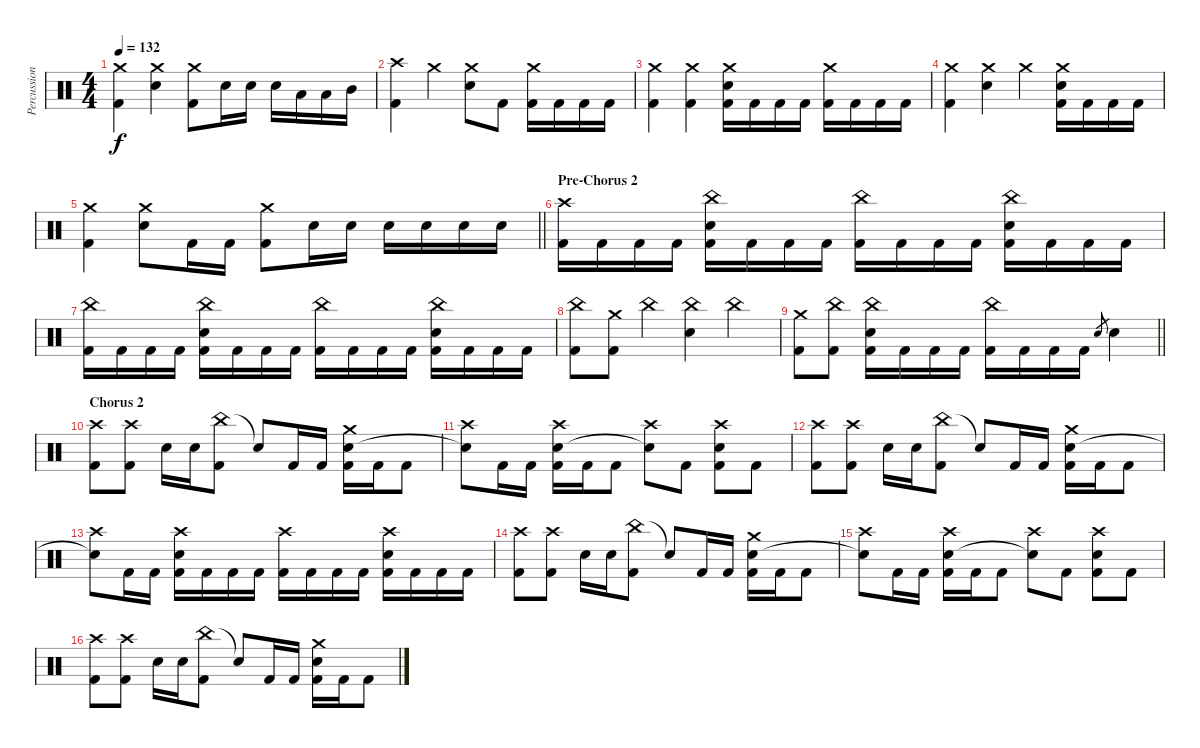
\track ("Percussion" "Percussion") {instrument percussion}
\staff {score}
\articulation defaults
\ts (4 4)
\tempo 132
\clef neutral
\ks c
("Crash medium (hit)" "Kick (hit) 2").4{dy f} ("Crash medium (hit)" "Electric Snare (hit)").4 ("Crash medium (hit)" "Kick (hit) 2").8 "Electric Snare (hit)".16 "Electric Snare (hit)".16 "Electric Snare (hit)".16 "Low Tom (hit)".16 "Low Tom (hit)".16 "Mid Tom (hit)".16 |
("Crash high (hit)" "Kick (hit) 2").4 "Crash medium (hit)".4 ("Crash medium (hit)" "Electric Snare (hit)").8 "Kick (hit) 2".8 ("Crash medium (hit)" "Kick (hit) 2").16 "Kick (hit) 2".16 "Kick (hit) 2".16 "Kick (hit) 2".16 |
("Crash medium (hit)" "Kick (hit) 2").4 ("Crash medium (hit)" "Kick (hit) 2").4 ("Crash medium (hit)" "Electric Snare (hit)" "Kick (hit) 2").16 "Kick (hit) 2".16 "Kick (hit) 2".16 "Kick (hit) 2".16 ("Crash medium (hit)" "Kick (hit) 2").16 "Kick (hit) 2".16 "Kick (hit) 2".16 "Kick (hit) 2".16 |
("Crash medium (hit)" "Kick (hit) 2").4 ("Crash medium (hit)" "Electric Snare (hit)").4 "Crash medium (hit)".4 ("Crash medium (hit)" "Electric Snare (hit)" "Kick (hit) 2").16 "Kick (hit) 2".16 "Kick (hit) 2".16 "Kick (hit) 2".16 |
\barLineRight lightlight
("Crash medium (hit)" "Kick (hit) 2").4 ("Crash medium (hit)" "Electric Snare (hit)").8 "Kick (hit) 2".16 "Kick (hit) 2".16 ("Crash medium (hit)" "Kick (hit) 2").8 "Electric Snare (hit)".16 "Electric Snare (hit)".16 "Electric Snare (hit)".16 "Electric Snare (hit)".16 "Electric Snare (hit)".16 "Electric Snare (hit)".16 |
\section ("" "Pre-Chorus 2")
("Crash high (hit)" "Kick (hit) 2").16 "Kick (hit) 2".16 "Kick (hit) 2".16 "Kick (hit) 2".16 ("China (hit)" "Electric Snare (hit)" "Kick (hit) 2").16 "Kick (hit) 2".16 "Kick (hit) 2".16 "Kick (hit) 2".16 ("China (hit)" "Kick (hit) 2").16 "Kick (hit) 2".16 "Kick (hit) 2".16 "Kick (hit) 2".16 ("China (hit)" "Electric Snare (hit)" "Kick (hit) 2").16 "Kick (hit) 2".16 "Kick (hit) 2".16 "Kick (hit) 2".16 |
("China (hit)" "Kick (hit) 2").16 "Kick (hit) 2".16 "Kick (hit) 2".16 "Kick (hit) 2".16 ("China (hit)" "Electric Snare (hit)" "Kick (hit) 2").16 "Kick (hit) 2".16 "Kick (hit) 2".16 "Kick (hit) 2".16 ("China (hit)" "Kick (hit) 2").16 "Kick (hit) 2".16 "Kick (hit) 2".16 "Kick (hit) 2".16 ("China (hit)" "Electric Snare (hit)" "Kick (hit) 2").16 "Kick (hit) 2".16 "Kick (hit) 2".16 "Kick (hit) 2".16 |
("China (hit)" "Kick (hit) 2").8 ("Crash medium (hit)" "Kick (hit) 2").8 "China (hit)".4 ("China (hit)" "Electric Snare (hit)").4 "China (hit)".4 |
\barLineRight lightlight
("Crash medium (hit)" "Kick (hit) 2").8 ("China (hit)" "Kick (hit) 2").8 ("China (hit)" "Electric Snare (hit)" "Kick (hit) 2").16 "Kick (hit) 2".16 "Kick (hit) 2".16 "Kick (hit) 2".16 ("China (hit)" "Kick (hit) 2").16 "Kick (hit) 2".16 "Kick (hit) 2".16 "Kick (hit) 2".16 "Electric Snare (hit)".8{gr} "Electric Snare (hit)".4 |
\section ("" "Chorus 2")
("Crash high (hit)" "Kick (hit) 2").8 ("Crash high (hit)" "Kick (hit) 2").8 "Electric Snare (hit)".16 "Electric Snare (hit)".16 ("China (hit)" "Kick (hit) 2").8 "Snare (hit)"{t}.8 "Kick (hit) 2".16 "Kick (hit) 2".16 ("Crash medium (hit)" "Electric Snare (hit)" "Kick (hit) 2").16 "Kick (hit) 2".16 "Kick (hit) 2".8 |
("Crash high (hit)" "Snare (hit)"{t}).8 "Kick (hit) 2".16 "Kick (hit) 2".16 ("Crash high (hit)" "Electric Snare (hit)" "Kick (hit) 2").16 "Kick (hit) 2".16 "Kick (hit) 2".8 ("Crash high (hit)" "Snare (hit)"{t}).8 "Kick (hit) 2".8 ("Crash high (hit)" "Electric Snare (hit)" "Kick (hit) 2").8 "Kick (hit) 2".8 |
("Crash high (hit)" "Kick (hit) 2").8 ("Crash high (hit)" "Kick (hit) 2").8 "Electric Snare (hit)".16 "Electric Snare (hit)".16 ("China (hit)" "Kick (hit) 2").8 "Snare (hit)"{t}.8 "Kick (hit) 2".16 "Kick (hit) 2".16 ("Crash medium (hit)" "Electric Snare (hit)" "Kick (hit) 2").16 "Kick (hit) 2".16 "Kick (hit) 2".8 |
("Crash high (hit)" "Snare (hit)"{t}).8 "Kick (hit) 2".16 "Kick (hit) 2".16 ("Crash high (hit)" "Electric Snare (hit)" "Kick (hit) 2").16 "Kick (hit) 2".16 "Kick (hit) 2".16 "Kick (hit) 2".16 ("Crash high (hit)" "Kick (hit) 2").16 "Kick (hit) 2".16 "Kick (hit) 2".16 "Kick (hit) 2".16 ("Crash high (hit)" "Electric Snare (hit)" "Kick (hit) 2").16 "Kick (hit) 2".16 "Kick (hit) 2".16 "Kick (hit) 2".16 |
("Crash high (hit)" "Kick (hit) 2").8 ("Crash high (hit)" "Kick (hit) 2").8 "Electric Snare (hit)".16 "Electric Snare (hit)".16 ("China (hit)" "Kick (hit) 2").8 "Snare (hit)"{t}.8 "Kick (hit) 2".16 "Kick (hit) 2".16 ("Crash medium (hit)" "Electric Snare (hit)" "Kick (hit) 2").16 "Kick (hit) 2".16 "Kick (hit) 2".8 |
("Crash high (hit)" "Snare (hit)"{t}).8 "Kick (hit) 2".16 "Kick (hit) 2".16 ("Crash high (hit)" "Electric Snare (hit)" "Kick (hit) 2").16 "Kick (hit) 2".16 "Kick (hit) 2".8 ("Crash high (hit)" "Snare (hit)"{t}).8 "Kick (hit) 2".8 ("Crash high (hit)" "Electric Snare (hit)" "Kick (hit) 2").8 "Kick (hit) 2".8 |
("Crash high (hit)" "Kick (hit) 2").8 ("Crash high (hit)" "Kick (hit) 2").8 "Electric Snare (hit)".16 "Electric Snare (hit)".16 ("China (hit)" "Kick (hit) 2").8 "Snare (hit)"{t}.8 "Kick (hit) 2".16 "Kick (hit) 2".16 ("Crash medium (hit)" "Electric Snare (hit)" "Kick (hit) 2").16 "Kick (hit) 2".16 "Kick (hit) 2".8
